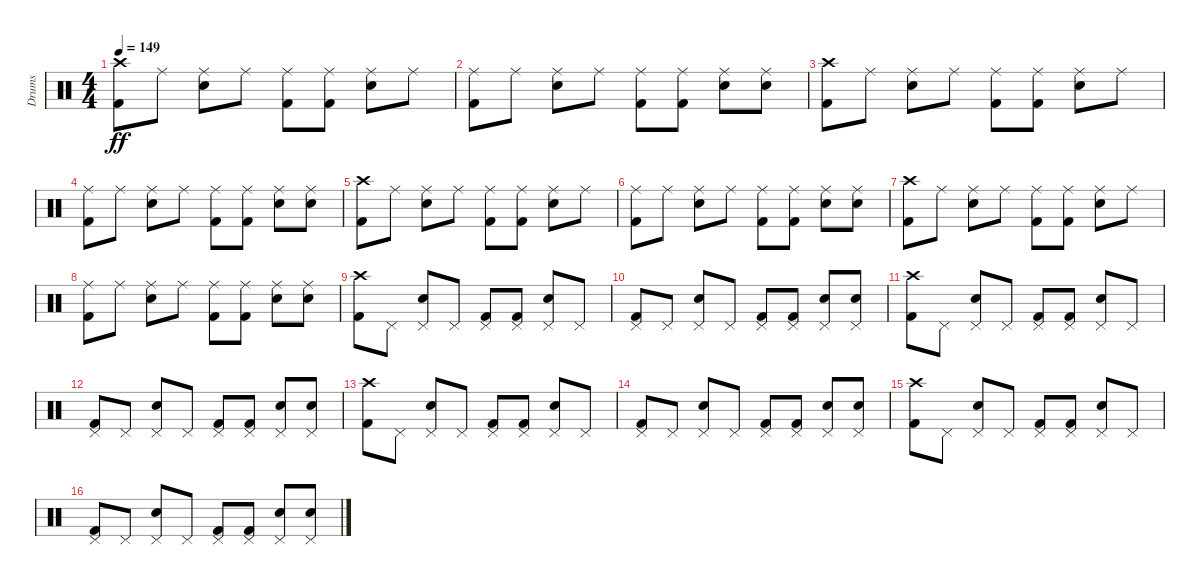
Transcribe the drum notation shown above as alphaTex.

\track ("Drums" "Drums") {instrument percussion}
\staff {score}
\articulation defaults
\ts (4 4)
\tempo 149
\clef neutral
\ks c
("Kick (hit) 2" "Crash high (hit)").8{dy ff} "Ride (middle)".8 ("Snare (hit) 2" "Ride (middle)").8 "Ride (middle)".8 ("Kick (hit) 2" "Ride (middle)").8 ("Kick (hit) 2" "Ride (middle)").8 ("Snare (hit) 2" "Ride (middle)").8 "Ride (middle)".8 |
("Kick (hit) 2" "Ride (middle)").8 "Ride (middle)".8 ("Snare (hit) 2" "Ride (middle)").8 "Ride (middle)".8 ("Kick (hit) 2" "Ride (middle)").8 ("Kick (hit) 2" "Ride (middle)").8 ("Snare (hit) 2" "Ride (middle)").8 ("Snare (hit) 2" "Ride (middle)").8 |
("Kick (hit) 2" "Crash high (hit)").8 "Ride (middle)".8 ("Snare (hit) 2" "Ride (middle)").8 "Ride (middle)".8 ("Kick (hit) 2" "Ride (middle)").8 ("Kick (hit) 2" "Ride (middle)").8 ("Snare (hit) 2" "Ride (middle)").8 "Ride (middle)".8 |
("Kick (hit) 2" "Ride (middle)").8 "Ride (middle)".8 ("Snare (hit) 2" "Ride (middle)").8 "Ride (middle)".8 ("Kick (hit) 2" "Ride (middle)").8 ("Kick (hit) 2" "Ride (middle)").8 ("Snare (hit) 2" "Ride (middle)").8 ("Snare (hit) 2" "Ride (middle)").8 |
("Kick (hit) 2" "Crash high (hit)").8 "Ride (middle)".8 ("Snare (hit) 2" "Ride (middle)").8 "Ride (middle)".8 ("Kick (hit) 2" "Ride (middle)").8 ("Kick (hit) 2" "Ride (middle)").8 ("Snare (hit) 2" "Ride (middle)").8 "Ride (middle)".8 |
("Kick (hit) 2" "Ride (middle)").8 "Ride (middle)".8 ("Snare (hit) 2" "Ride (middle)").8 "Ride (middle)".8 ("Kick (hit) 2" "Ride (middle)").8 ("Kick (hit) 2" "Ride (middle)").8 ("Snare (hit) 2" "Ride (middle)").8 ("Snare (hit) 2" "Ride (middle)").8 |
("Kick (hit) 2" "Crash high (hit)").8 "Ride (middle)".8 ("Snare (hit) 2" "Ride (middle)").8 "Ride (middle)".8 ("Kick (hit) 2" "Ride (middle)").8 ("Kick (hit) 2" "Ride (middle)").8 ("Snare (hit) 2" "Ride (middle)").8 "Ride (middle)".8 |
("Kick (hit) 2" "Ride (middle)").8 "Ride (middle)".8 ("Snare (hit) 2" "Ride (middle)").8 "Ride (middle)".8 ("Kick (hit) 2" "Ride (middle)").8 ("Kick (hit) 2" "Ride (middle)").8 ("Snare (hit) 2" "Ride (middle)").8 ("Snare (hit) 2" "Ride (middle)").8 |
("Kick (hit) 2" "Crash high (hit)").8 "Pedal Hi-Hat (hit)".8 ("Snare (hit) 2" "Pedal Hi-Hat (hit)").8 "Pedal Hi-Hat (hit)".8 ("Kick (hit) 2" "Pedal Hi-Hat (hit)").8 ("Kick (hit) 2" "Pedal Hi-Hat (hit)").8 ("Snare (hit) 2" "Pedal Hi-Hat (hit)").8 "Pedal Hi-Hat (hit)".8 |
("Kick (hit) 2" "Pedal Hi-Hat (hit)").8 "Pedal Hi-Hat (hit)".8 ("Snare (hit) 2" "Pedal Hi-Hat (hit)").8 "Pedal Hi-Hat (hit)".8 ("Kick (hit) 2" "Pedal Hi-Hat (hit)").8 ("Kick (hit) 2" "Pedal Hi-Hat (hit)").8 ("Snare (hit) 2" "Pedal Hi-Hat (hit)").8 ("Snare (hit) 2" "Pedal Hi-Hat (hit)").8 |
("Kick (hit) 2" "Crash high (hit)").8 "Pedal Hi-Hat (hit)".8 ("Snare (hit) 2" "Pedal Hi-Hat (hit)").8 "Pedal Hi-Hat (hit)".8 ("Kick (hit) 2" "Pedal Hi-Hat (hit)").8 ("Kick (hit) 2" "Pedal Hi-Hat (hit)").8 ("Snare (hit) 2" "Pedal Hi-Hat (hit)").8 "Pedal Hi-Hat (hit)".8 |
("Kick (hit) 2" "Pedal Hi-Hat (hit)").8 "Pedal Hi-Hat (hit)".8 ("Snare (hit) 2" "Pedal Hi-Hat (hit)").8 "Pedal Hi-Hat (hit)".8 ("Kick (hit) 2" "Pedal Hi-Hat (hit)").8 ("Kick (hit) 2" "Pedal Hi-Hat (hit)").8 ("Snare (hit) 2" "Pedal Hi-Hat (hit)").8 ("Snare (hit) 2" "Pedal Hi-Hat (hit)").8 |
("Kick (hit) 2" "Crash high (hit)").8 "Pedal Hi-Hat (hit)".8 ("Snare (hit) 2" "Pedal Hi-Hat (hit)").8 "Pedal Hi-Hat (hit)".8 ("Kick (hit) 2" "Pedal Hi-Hat (hit)").8 ("Kick (hit) 2" "Pedal Hi-Hat (hit)").8 ("Snare (hit) 2" "Pedal Hi-Hat (hit)").8 "Pedal Hi-Hat (hit)".8 |
("Kick (hit) 2" "Pedal Hi-Hat (hit)").8 "Pedal Hi-Hat (hit)".8 ("Snare (hit) 2" "Pedal Hi-Hat (hit)").8 "Pedal Hi-Hat (hit)".8 ("Kick (hit) 2" "Pedal Hi-Hat (hit)").8 ("Kick (hit) 2" "Pedal Hi-Hat (hit)").8 ("Snare (hit) 2" "Pedal Hi-Hat (hit)").8 ("Snare (hit) 2" "Pedal Hi-Hat (hit)").8 |
("Kick (hit) 2" "Crash high (hit)").8 "Pedal Hi-Hat (hit)".8 ("Snare (hit) 2" "Pedal Hi-Hat (hit)").8 "Pedal Hi-Hat (hit)".8 ("Kick (hit) 2" "Pedal Hi-Hat (hit)").8 ("Kick (hit) 2" "Pedal Hi-Hat (hit)").8 ("Snare (hit) 2" "Pedal Hi-Hat (hit)").8 "Pedal Hi-Hat (hit)".8 |
("Kick (hit) 2" "Pedal Hi-Hat (hit)").8 "Pedal Hi-Hat (hit)".8 ("Snare (hit) 2" "Pedal Hi-Hat (hit)").8 "Pedal Hi-Hat (hit)".8 ("Kick (hit) 2" "Pedal Hi-Hat (hit)").8 ("Kick (hit) 2" "Pedal Hi-Hat (hit)").8 ("Snare (hit) 2" "Pedal Hi-Hat (hit)").8 ("Snare (hit) 2" "Pedal Hi-Hat (hit)").8
